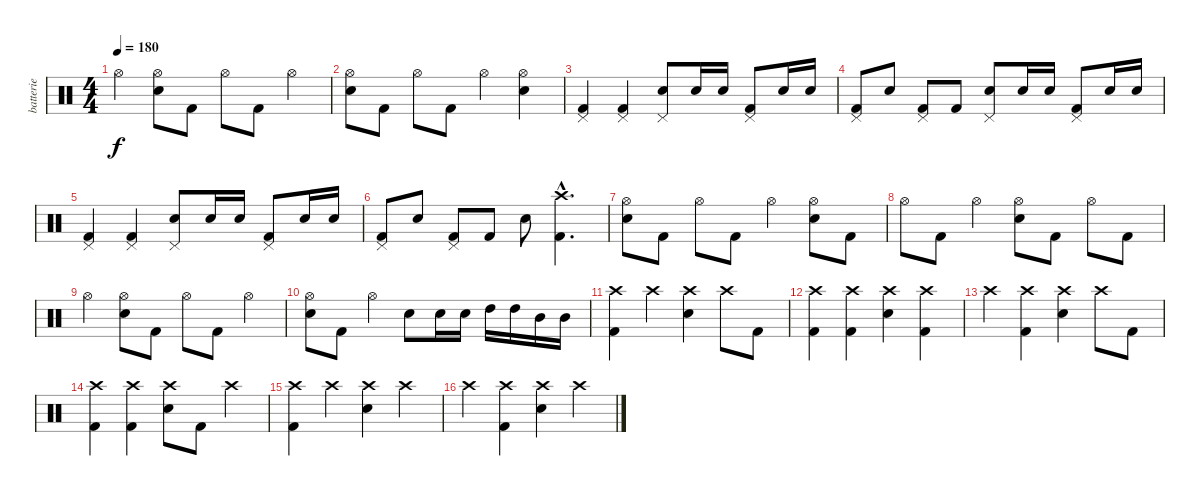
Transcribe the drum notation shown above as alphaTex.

\track ("batterie" "batterie") {instrument percussion}
\staff {score}
\articulation defaults
\ts (4 4)
\tempo 180
\clef neutral
\ks c "Hi-Hat (open)".4{dy f}
("Hi-Hat (open)" "Electric Snare (hit)").8 "Kick (hit) 2".8 "Hi-Hat (open)".8 "Kick (hit) 2".8 "Hi-Hat (open)".4 |
("Hi-Hat (open)" "Electric Snare (hit)").8 "Kick (hit) 2".8 "Hi-Hat (open)".8 "Kick (hit) 2".8 "Hi-Hat (open)".4 ("Hi-Hat (open)" "Electric Snare (hit)").4 |
("Pedal Hi-Hat (hit)" "Kick (hit) 2").4 ("Pedal Hi-Hat (hit)" "Kick (hit) 2").4 ("Pedal Hi-Hat (hit)" "Electric Snare (hit)").8 "Electric Snare (hit)".16 "Electric Snare (hit)".16 ("Pedal Hi-Hat (hit)" "Kick (hit) 2").8 "Electric Snare (hit)".16 "Electric Snare (hit)".16 |
("Pedal Hi-Hat (hit)" "Kick (hit) 2").8 "Electric Snare (hit)".8 ("Pedal Hi-Hat (hit)" "Kick (hit) 2").8 "Kick (hit) 2".8 ("Pedal Hi-Hat (hit)" "Electric Snare (hit)").8 "Electric Snare (hit)".16 "Electric Snare (hit)".16 ("Pedal Hi-Hat (hit)" "Kick (hit) 2").8 "Electric Snare (hit)".16 "Electric Snare (hit)".16 |
("Pedal Hi-Hat (hit)" "Kick (hit) 2").4 ("Pedal Hi-Hat (hit)" "Kick (hit) 2").4 ("Pedal Hi-Hat (hit)" "Electric Snare (hit)").8 "Electric Snare (hit)".16 "Electric Snare (hit)".16 ("Pedal Hi-Hat (hit)" "Kick (hit) 2").8 "Electric Snare (hit)".16 "Electric Snare (hit)".16 |
("Pedal Hi-Hat (hit)" "Kick (hit) 2").8 "Electric Snare (hit)".8 ("Pedal Hi-Hat (hit)" "Kick (hit) 2").8 "Kick (hit) 2".8 "Electric Snare (hit)".8 ("Crash high (hit)"{hac} "Kick (hit) 2"{hac}).4{d} |
("Hi-Hat (open)" "Electric Snare (hit)").8 "Kick (hit) 2".8 "Hi-Hat (open)".8 "Kick (hit) 2".8 "Hi-Hat (open)".4 ("Hi-Hat (open)" "Electric Snare (hit)").8 "Kick (hit) 2".8 |
"Hi-Hat (open)".8 "Kick (hit) 2".8 "Hi-Hat (open)".4 ("Hi-Hat (open)" "Electric Snare (hit)").8 "Kick (hit) 2".8 "Hi-Hat (open)".8 "Kick (hit) 2".8 |
"Hi-Hat (open)".4 ("Hi-Hat (open)" "Electric Snare (hit)").8 "Kick (hit) 2".8 "Hi-Hat (open)".8 "Kick (hit) 2".8 "Hi-Hat (open)".4 |
("Hi-Hat (open)" "Electric Snare (hit)").8 "Kick (hit) 2".8 "Hi-Hat (open)".4 "Electric Snare (hit)".8 "Electric Snare (hit)".16 "Electric Snare (hit)".16 "High Tom (hit)".16 "High Tom (hit)".16 "Mid Tom (hit)".16 "Mid Tom (hit)".16 |
("Crash high (hit)" "Kick (hit) 2").4 "Crash high (hit)".4 ("Crash high (hit)" "Electric Snare (hit)").4 "Crash high (hit)".8 "Kick (hit) 2".8 |
("Crash high (hit)" "Kick (hit) 2").4 ("Crash high (hit)" "Kick (hit) 2").4 ("Crash high (hit)" "Electric Snare (hit)").4 ("Crash high (hit)" "Kick (hit) 2").4 |
"Crash high (hit)".4 ("Crash high (hit)" "Kick (hit) 2").4 ("Crash high (hit)" "Electric Snare (hit)").4 "Crash high (hit)".8 "Kick (hit) 2".8 |
("Crash high (hit)" "Kick (hit) 2").4 ("Crash high (hit)" "Kick (hit) 2").4 ("Crash high (hit)" "Electric Snare (hit)").8 "Kick (hit) 2".8 "Crash high (hit)".4 |
("Crash high (hit)" "Kick (hit) 2").4 "Crash high (hit)".4 ("Crash high (hit)" "Electric Snare (hit)").4 "Crash high (hit)".4 |
"Crash high (hit)".4 ("Crash high (hit)" "Kick (hit) 2").4 ("Crash high (hit)" "Electric Snare (hit)").4 "Crash high (hit)".4
